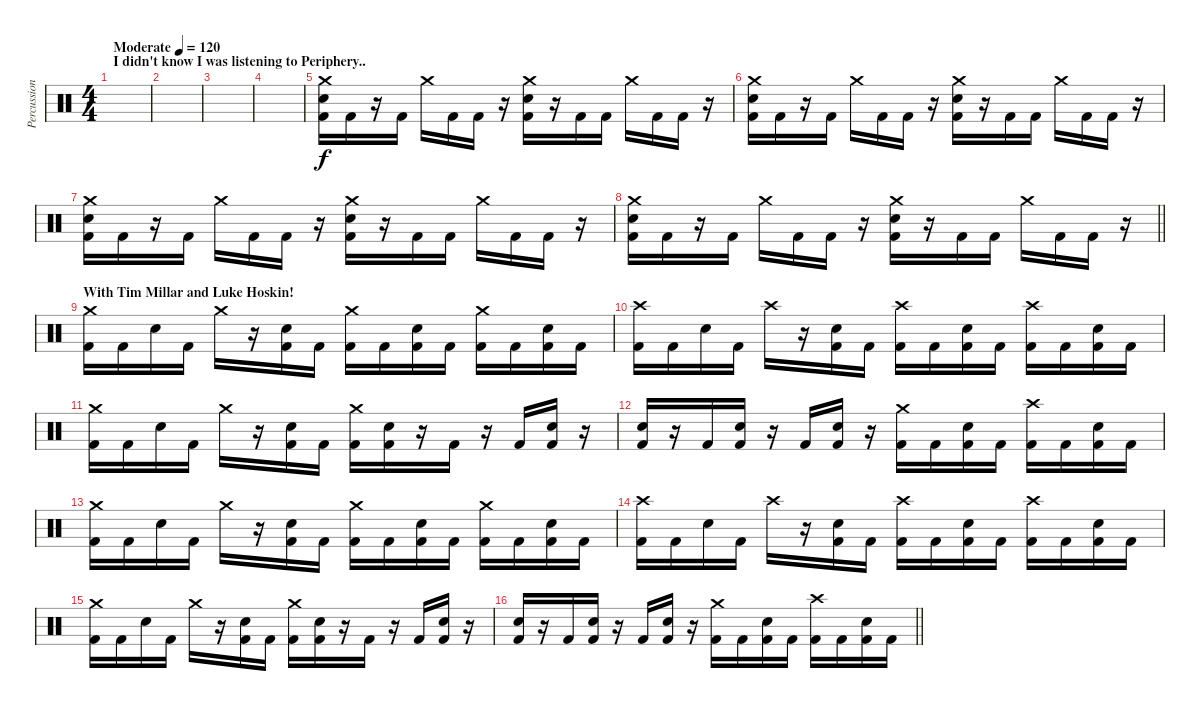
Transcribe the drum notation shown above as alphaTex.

\track ("Percussion" "Percussion") {instrument percussion}
\staff {score}
\articulation defaults
\ts (4 4)
\section ("" "I didn't know I was listening to Periphery..")
\tempo (120 "Moderate")
\clef neutral
\ks c
|
|
|
|
("Crash medium (hit)" "Electric Snare (hit)" "Kick (hit) 2").16 "Kick (hit) 2".16 r.16 "Kick (hit) 2".16 "Crash medium (hit)".16 "Kick (hit) 2".16 "Kick (hit) 2".16 r.16 ("Crash medium (hit)" "Electric Snare (hit)" "Kick (hit) 2").16 r.16 "Kick (hit) 2".16 "Kick (hit) 2".16 "Crash medium (hit)".16 "Kick (hit) 2".16 "Kick (hit) 2".16 r.16 |
("Crash medium (hit)" "Electric Snare (hit)" "Kick (hit) 2").16 "Kick (hit) 2".16 r.16 "Kick (hit) 2".16 "Crash medium (hit)".16 "Kick (hit) 2".16 "Kick (hit) 2".16 r.16 ("Crash medium (hit)" "Electric Snare (hit)" "Kick (hit) 2").16 r.16 "Kick (hit) 2".16 "Kick (hit) 2".16 "Crash medium (hit)".16 "Kick (hit) 2".16 "Kick (hit) 2".16 r.16 |
("Crash medium (hit)" "Electric Snare (hit)" "Kick (hit) 2").16 "Kick (hit) 2".16 r.16 "Kick (hit) 2".16 "Crash medium (hit)".16 "Kick (hit) 2".16 "Kick (hit) 2".16 r.16 ("Crash medium (hit)" "Electric Snare (hit)" "Kick (hit) 2").16 r.16 "Kick (hit) 2".16 "Kick (hit) 2".16 "Crash medium (hit)".16 "Kick (hit) 2".16 "Kick (hit) 2".16 r.16 |
\barLineRight lightlight
("Crash medium (hit)" "Electric Snare (hit)" "Kick (hit) 2").16 "Kick (hit) 2".16 r.16 "Kick (hit) 2".16 "Crash medium (hit)".16 "Kick (hit) 2".16 "Kick (hit) 2".16 r.16 ("Crash medium (hit)" "Electric Snare (hit)" "Kick (hit) 2").16 r.16 "Kick (hit) 2".16 "Kick (hit) 2".16 "Crash medium (hit)".16 "Kick (hit) 2".16 "Kick (hit) 2".16 r.16 |
\section ("" "With Tim Millar and Luke Hoskin!")
("Crash medium (hit)" "Kick (hit) 2").16 "Kick (hit) 2".16 "Electric Snare (hit)".16 "Kick (hit) 2".16 "Crash medium (hit)".16 r.16 ("Electric Snare (hit)" "Kick (hit) 2").16 "Kick (hit) 2".16 ("Crash medium (hit)" "Kick (hit) 2").16 "Kick (hit) 2".16 ("Electric Snare (hit)" "Kick (hit) 2").16 "Kick (hit) 2".16 ("Crash medium (hit)" "Kick (hit) 2").16 "Kick (hit) 2".16 ("Electric Snare (hit)" "Kick (hit) 2").16 "Kick (hit) 2".16 |
("Crash high (hit)" "Kick (hit) 2").16 "Kick (hit) 2".16 "Electric Snare (hit)".16 "Kick (hit) 2".16 "Crash high (hit)".16 r.16 ("Electric Snare (hit)" "Kick (hit) 2").16 "Kick (hit) 2".16 ("Crash high (hit)" "Kick (hit) 2").16 "Kick (hit) 2".16 ("Electric Snare (hit)" "Kick (hit) 2").16 "Kick (hit) 2".16 ("Crash high (hit)" "Kick (hit) 2").16 "Kick (hit) 2".16 ("Electric Snare (hit)" "Kick (hit) 2").16 "Kick (hit) 2".16 |
("Crash medium (hit)" "Kick (hit) 2").16 "Kick (hit) 2".16 "Electric Snare (hit)".16 "Kick (hit) 2".16 "Crash medium (hit)".16 r.16 ("Electric Snare (hit)" "Kick (hit) 2").16 "Kick (hit) 2".16 ("Crash medium (hit)" "Kick (hit) 2").16 ("Electric Snare (hit)" "Kick (hit) 2").16 r.16 "Kick (hit) 2".16 r.16 "Kick (hit) 2".16 ("Electric Snare (hit)" "Kick (hit) 2").16 r.16 |
("Electric Snare (hit)" "Kick (hit) 2").16 r.16 "Kick (hit) 2".16 ("Electric Snare (hit)" "Kick (hit) 2").16 r.16 "Kick (hit) 2".16 ("Electric Snare (hit)" "Kick (hit) 2").16 r.16 ("Crash medium (hit)" "Kick (hit) 2").16 "Kick (hit) 2".16 ("Electric Snare (hit)" "Kick (hit) 2").16 "Kick (hit) 2".16 ("Crash high (hit)" "Kick (hit) 2").16 "Kick (hit) 2".16 ("Electric Snare (hit)" "Kick (hit) 2").16 "Kick (hit) 2".16 |
("Crash medium (hit)" "Kick (hit) 2").16 "Kick (hit) 2".16 "Electric Snare (hit)".16 "Kick (hit) 2".16 "Crash medium (hit)".16 r.16 ("Electric Snare (hit)" "Kick (hit) 2").16 "Kick (hit) 2".16 ("Crash medium (hit)" "Kick (hit) 2").16 "Kick (hit) 2".16 ("Electric Snare (hit)" "Kick (hit) 2").16 "Kick (hit) 2".16 ("Crash medium (hit)" "Kick (hit) 2").16 "Kick (hit) 2".16 ("Electric Snare (hit)" "Kick (hit) 2").16 "Kick (hit) 2".16 |
("Crash high (hit)" "Kick (hit) 2").16 "Kick (hit) 2".16 "Electric Snare (hit)".16 "Kick (hit) 2".16 "Crash high (hit)".16 r.16 ("Electric Snare (hit)" "Kick (hit) 2").16 "Kick (hit) 2".16 ("Crash high (hit)" "Kick (hit) 2").16 "Kick (hit) 2".16 ("Electric Snare (hit)" "Kick (hit) 2").16 "Kick (hit) 2".16 ("Crash high (hit)" "Kick (hit) 2").16 "Kick (hit) 2".16 ("Electric Snare (hit)" "Kick (hit) 2").16 "Kick (hit) 2".16 |
("Crash medium (hit)" "Kick (hit) 2").16 "Kick (hit) 2".16 "Electric Snare (hit)".16 "Kick (hit) 2".16 "Crash medium (hit)".16 r.16 ("Electric Snare (hit)" "Kick (hit) 2").16 "Kick (hit) 2".16 ("Crash medium (hit)" "Kick (hit) 2").16 ("Electric Snare (hit)" "Kick (hit) 2").16 r.16 "Kick (hit) 2".16 r.16 "Kick (hit) 2".16 ("Electric Snare (hit)" "Kick (hit) 2").16 r.16 |
\barLineRight lightlight
("Electric Snare (hit)" "Kick (hit) 2").16 r.16 "Kick (hit) 2".16 ("Electric Snare (hit)" "Kick (hit) 2").16 r.16 "Kick (hit) 2".16 ("Electric Snare (hit)" "Kick (hit) 2").16 r.16 ("Crash medium (hit)" "Kick (hit) 2").16 "Kick (hit) 2".16 ("Electric Snare (hit)" "Kick (hit) 2").16 "Kick (hit) 2".16 ("Crash high (hit)" "Kick (hit) 2").16 "Kick (hit) 2".16 ("Electric Snare (hit)" "Kick (hit) 2").16 "Kick (hit) 2".16
